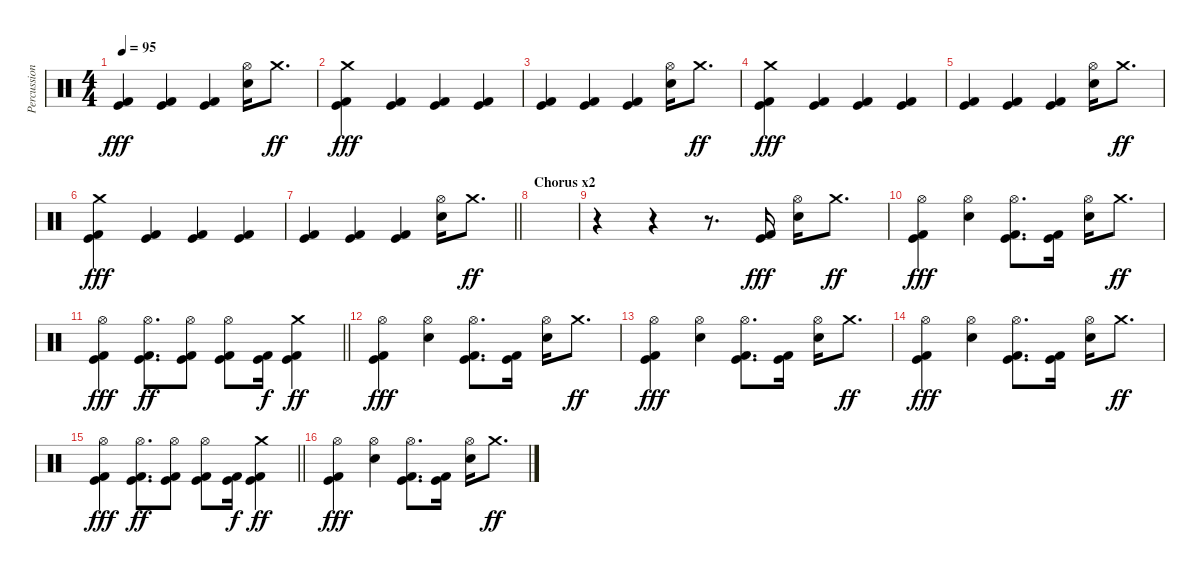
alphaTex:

\track ("Percussion" "Percussion") {instrument percussion}
\staff {score}
\articulation defaults
\ts (4 4)
\tempo 95
\clef neutral
\ks c
("Kick (hit)" "Kick (hit) 2").4{dy fff} ("Kick (hit)" "Kick (hit) 2").4 ("Kick (hit)" "Kick (hit) 2").4 ("Hi-Hat (open)" "Snare (hit) 2").16 "Crash medium (hit)".8{d dy ff} |
("Crash medium (hit)" "Kick (hit)" "Kick (hit) 2").4{dy fff} ("Kick (hit)" "Kick (hit) 2").4 ("Kick (hit)" "Kick (hit) 2").4 ("Kick (hit)" "Kick (hit) 2").4 |
("Kick (hit)" "Kick (hit) 2").4 ("Kick (hit)" "Kick (hit) 2").4 ("Kick (hit)" "Kick (hit) 2").4 ("Hi-Hat (open)" "Snare (hit) 2").16 "Crash medium (hit)".8{d dy ff} |
("Crash medium (hit)" "Kick (hit)" "Kick (hit) 2").4{dy fff} ("Kick (hit)" "Kick (hit) 2").4 ("Kick (hit)" "Kick (hit) 2").4 ("Kick (hit)" "Kick (hit) 2").4 |
("Kick (hit)" "Kick (hit) 2").4 ("Kick (hit)" "Kick (hit) 2").4 ("Kick (hit)" "Kick (hit) 2").4 ("Hi-Hat (open)" "Snare (hit) 2").16 "Crash medium (hit)".8{d dy ff} |
("Crash medium (hit)" "Kick (hit)" "Kick (hit) 2").4{dy fff} ("Kick (hit)" "Kick (hit) 2").4 ("Kick (hit)" "Kick (hit) 2").4 ("Kick (hit)" "Kick (hit) 2").4 |
\barLineRight lightlight
("Kick (hit)" "Kick (hit) 2").4 ("Kick (hit)" "Kick (hit) 2").4 ("Kick (hit)" "Kick (hit) 2").4 ("Hi-Hat (open)" "Snare (hit) 2").16 "Crash medium (hit)".8{d dy ff} |
\section ("" "Chorus x2")
|
r.4 r.4 r.8{d} ("Kick (hit)" "Kick (hit) 2").16{dy fff} ("Hi-Hat (open)" "Snare (hit) 2").16 "Crash medium (hit)".8{d dy ff} |
("Hi-Hat (open)" "Kick (hit)" "Kick (hit) 2").4{dy fff} ("Hi-Hat (open)" "Snare (hit) 2").4 ("Hi-Hat (open)" "Kick (hit)" "Kick (hit) 2").8{d} ("Kick (hit)" "Kick (hit) 2").16 ("Hi-Hat (open)" "Snare (hit) 2").16 "Crash medium (hit)".8{d dy ff} |
\barLineRight lightlight
("Hi-Hat (open)" "Kick (hit)" "Kick (hit) 2").4{dy fff} ("Hi-Hat (open)" "Kick (hit)" "Kick (hit) 2").8{d dy ff} ("Hi-Hat (open)" "Kick (hit)" "Kick (hit) 2").8 ("Hi-Hat (open)" "Kick (hit)" "Kick (hit) 2").8 ("Kick (hit)" "Kick (hit) 2").16{dy f} ("Crash medium (hit)" "Kick (hit)" "Kick (hit) 2").4{dy ff} |
("Hi-Hat (open)" "Kick (hit)" "Kick (hit) 2").4{dy fff} ("Hi-Hat (open)" "Snare (hit) 2").4 ("Hi-Hat (open)" "Kick (hit)" "Kick (hit) 2").8{d} ("Kick (hit)" "Kick (hit) 2").16 ("Hi-Hat (open)" "Snare (hit) 2").16 "Crash medium (hit)".8{d dy ff} |
("Hi-Hat (open)" "Kick (hit)" "Kick (hit) 2").4{dy fff} ("Hi-Hat (open)" "Snare (hit) 2").4 ("Hi-Hat (open)" "Kick (hit)" "Kick (hit) 2").8{d} ("Kick (hit)" "Kick (hit) 2").16 ("Hi-Hat (open)" "Snare (hit) 2").16 "Crash medium (hit)".8{d dy ff} |
("Hi-Hat (open)" "Kick (hit)" "Kick (hit) 2").4{dy fff} ("Hi-Hat (open)" "Snare (hit) 2").4 ("Hi-Hat (open)" "Kick (hit)" "Kick (hit) 2").8{d} ("Kick (hit)" "Kick (hit) 2").16 ("Hi-Hat (open)" "Snare (hit) 2").16 "Crash medium (hit)".8{d dy ff} |
\barLineRight lightlight
("Hi-Hat (open)" "Kick (hit)" "Kick (hit) 2").4{dy fff} ("Hi-Hat (open)" "Kick (hit)" "Kick (hit) 2").8{d dy ff} ("Hi-Hat (open)" "Kick (hit)" "Kick (hit) 2").8 ("Hi-Hat (open)" "Kick (hit)" "Kick (hit) 2").8 ("Kick (hit)" "Kick (hit) 2").16{dy f} ("Crash medium (hit)" "Kick (hit)" "Kick (hit) 2").4{dy ff} |
("Hi-Hat (open)" "Kick (hit)" "Kick (hit) 2").4{dy fff} ("Hi-Hat (open)" "Snare (hit) 2").4 ("Hi-Hat (open)" "Kick (hit)" "Kick (hit) 2").8{d} ("Kick (hit)" "Kick (hit) 2").16 ("Hi-Hat (open)" "Snare (hit) 2").16 "Crash medium (hit)".8{d dy ff}
